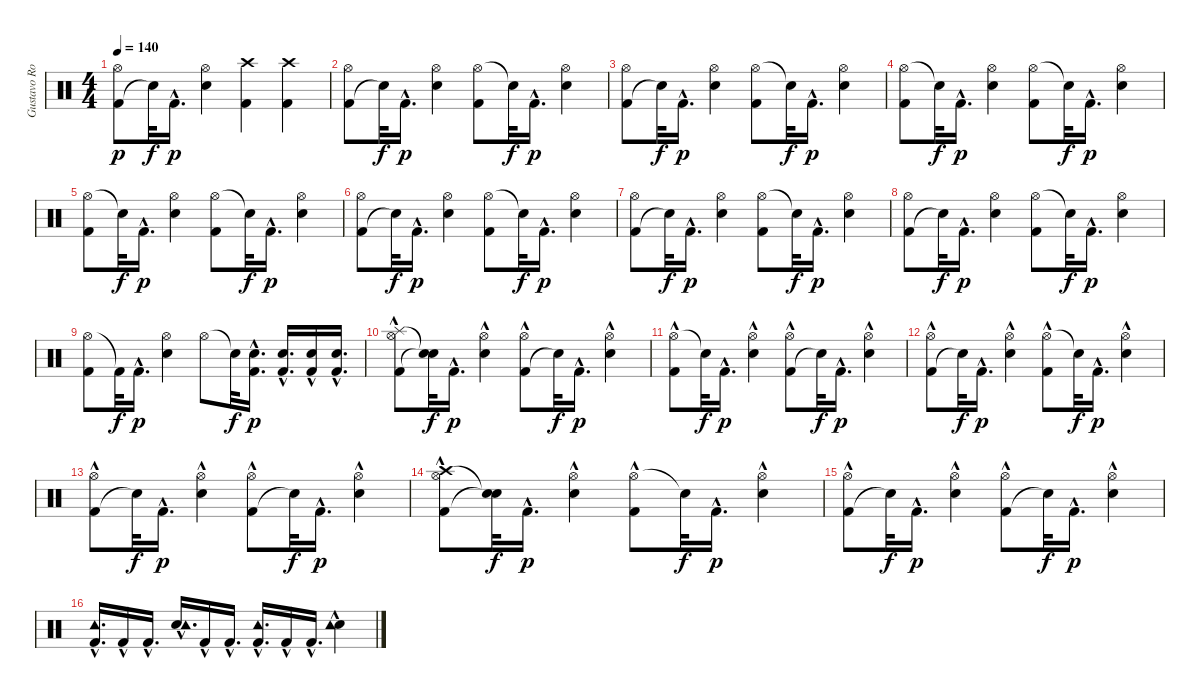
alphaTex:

\track ("Gustavo Rowek" "Gustavo Ro") {instrument percussion}
\staff {score}
\articulation defaults
\ts (4 4)
\tempo 140
\clef neutral
\ks c
("Kick (hit) 2" "Hi-Hat (open)").8{dy p} "Snare (hit)"{t}.32{dy f} "Kick (hit) 2"{hac}.16{d dy p} ("Snare (hit) 2" "Hi-Hat (open)").4 ("Crash high (hit)" "Kick (hit) 2").4 ("Crash high (hit)" "Kick (hit) 2").4 |
("Kick (hit) 2" "Hi-Hat (open)").8 "Snare (hit)"{t}.32{dy f} "Kick (hit) 2"{hac}.16{d dy p} ("Snare (hit) 2" "Hi-Hat (open)").4 ("Hi-Hat (open)" "Kick (hit) 2").8 "Snare (hit)"{t}.32{dy f} "Kick (hit) 2"{hac}.16{d dy p} ("Snare (hit) 2" "Hi-Hat (open)").4 |
("Kick (hit) 2" "Hi-Hat (open)").8 "Snare (hit)"{t}.32{dy f} "Kick (hit) 2"{hac}.16{d dy p} ("Hi-Hat (open)" "Snare (hit) 2").4 ("Hi-Hat (open)" "Kick (hit) 2").8 "Snare (hit)"{t}.32{dy f} "Kick (hit) 2"{hac}.16{d dy p} ("Hi-Hat (open)" "Snare (hit) 2").4 |
("Hi-Hat (open)" "Kick (hit) 2").8 "Snare (hit)"{t}.32{dy f} "Kick (hit) 2"{hac}.16{d dy p} ("Hi-Hat (open)" "Snare (hit) 2").4 ("Hi-Hat (open)" "Kick (hit) 2").8 "Snare (hit)"{t}.32{dy f} "Kick (hit) 2"{hac}.16{d dy p} ("Hi-Hat (open)" "Snare (hit) 2").4 |
("Hi-Hat (open)" "Kick (hit) 2").8 "Snare (hit)"{t}.32{dy f} "Kick (hit) 2"{hac}.16{d dy p} ("Hi-Hat (open)" "Snare (hit) 2").4 ("Hi-Hat (open)" "Kick (hit) 2").8 "Snare (hit)"{t}.32{dy f} "Kick (hit) 2"{hac}.16{d dy p} ("Hi-Hat (open)" "Snare (hit) 2").4 |
("Kick (hit) 2" "Hi-Hat (open)").8 "Snare (hit)"{t}.32{dy f} "Kick (hit) 2"{hac}.16{d dy p} ("Hi-Hat (open)" "Snare (hit) 2").4 ("Hi-Hat (open)" "Kick (hit) 2").8 "Snare (hit)"{t}.32{dy f} "Kick (hit) 2"{hac}.16{d dy p} ("Hi-Hat (open)" "Snare (hit) 2").4 |
("Kick (hit) 2" "Hi-Hat (open)").8 "Snare (hit)"{t}.32{dy f} "Kick (hit) 2"{hac}.16{d dy p} ("Hi-Hat (open)" "Snare (hit) 2").4 ("Hi-Hat (open)" "Kick (hit) 2").8 "Snare (hit)"{t}.32{dy f} "Kick (hit) 2"{hac}.16{d dy p} ("Hi-Hat (open)" "Snare (hit) 2").4 |
("Kick (hit) 2" "Hi-Hat (open)").8 "Snare (hit)"{t}.32{dy f} "Kick (hit) 2"{hac}.16{d dy p} ("Hi-Hat (open)" "Snare (hit) 2").4 ("Hi-Hat (open)" "Kick (hit) 2").8 "Snare (hit)"{t}.32{dy f} "Kick (hit) 2"{hac}.16{d dy p} ("Hi-Hat (open)" "Snare (hit) 2").4 |
("Hi-Hat (open)" "Kick (hit) 2").8 "Kick (hit) 2"{t}.32{dy f} "Kick (hit) 2"{hac}.16{d dy p} ("Hi-Hat (open)" "Snare (hit) 2").4 "Hi-Hat (open)".8 "Snare (hit)"{t}.32{dy f} ("Kick (hit) 2"{hac} "Snare (hit) 2"{hac}).16{d dy p} ("Kick (hit) 2"{hac} "Snare (hit) 2"{hac}).16{d} ("Kick (hit) 2"{hac} "Snare (hit) 2"{hac}).16 ("Kick (hit) 2"{hac} "Snare (hit) 2"{hac}).16{d} |
("Splash (hit)" "Kick (hit) 2"{hac} "Hi-Hat (open)").8 ("Snare (hit)"{t} "Snare (hit)"{t}).32{dy f} "Kick (hit) 2"{hac}.16{d dy p} ("Snare (hit) 2"{hac} "Hi-Hat (open)").4 ("Kick (hit) 2"{hac} "Hi-Hat (open)").8 "Snare (hit)"{t}.32{dy f} "Kick (hit) 2"{hac}.16{d dy p} ("Snare (hit) 2"{hac} "Hi-Hat (open)").4 |
("Hi-Hat (open)" "Kick (hit) 2"{hac}).8 "Snare (hit)"{t}.32{dy f} "Kick (hit) 2"{hac}.16{d dy p} ("Hi-Hat (open)" "Snare (hit) 2"{hac}).4 ("Kick (hit) 2"{hac} "Hi-Hat (open)").8 "Snare (hit)"{t}.32{dy f} "Kick (hit) 2"{hac}.16{d dy p} ("Hi-Hat (open)" "Snare (hit) 2"{hac}).4 |
("Kick (hit) 2"{hac} "Hi-Hat (open)").8 "Snare (hit)"{t}.32{dy f} "Kick (hit) 2"{hac}.16{d dy p} ("Snare (hit) 2"{hac} "Hi-Hat (open)").4 ("Hi-Hat (open)" "Kick (hit) 2"{hac}).8 "Snare (hit)"{t}.32{dy f} "Kick (hit) 2"{hac}.16{d dy p} ("Snare (hit) 2"{hac} "Hi-Hat (open)").4 |
("Kick (hit) 2"{hac} "Hi-Hat (open)").8 "Snare (hit)"{t}.32{dy f} "Kick (hit) 2"{hac}.16{d dy p} ("Snare (hit) 2"{hac} "Hi-Hat (open)").4 ("Kick (hit) 2"{hac} "Hi-Hat (open)").8 "Snare (hit)"{t}.32{dy f} "Kick (hit) 2"{hac}.16{d dy p} ("Snare (hit) 2"{hac} "Hi-Hat (open)").4 |
("Kick (hit) 2"{hac} "Crash high (hit)" "Hi-Hat (open)").8 ("Snare (hit)"{t} "Snare (hit)"{t}).32{dy f} "Kick (hit) 2"{hac}.16{d dy p} ("Hi-Hat (open)" "Snare (hit) 2"{hac}).4 ("Hi-Hat (open)" "Kick (hit) 2"{hac}).8 "Snare (hit)"{t}.32{dy f} "Kick (hit) 2"{hac}.16{d dy p} ("Hi-Hat (open)" "Snare (hit) 2"{hac}).4 |
("Kick (hit) 2"{hac} "Hi-Hat (open)").8 "Snare (hit)"{t}.32{dy f} "Kick (hit) 2"{hac}.16{d dy p} ("Hi-Hat (open)" "Snare (hit) 2"{hac}).4 ("Kick (hit) 2"{hac} "Hi-Hat (open)").8 "Snare (hit)"{t}.32{dy f} "Kick (hit) 2"{hac}.16{d dy p} ("Snare (hit) 2"{hac} "Hi-Hat (open)").4 |
("Tambourine (hit)" "Kick (hit) 2"{hac}).16{d} "Kick (hit) 2"{hac}.16 "Kick (hit) 2"{hac}.16{d} ("Snare (hit) 2"{hac} "Tambourine (hit)").16{d} "Kick (hit) 2"{hac}.16 "Kick (hit) 2"{hac}.16{d} ("Tambourine (hit)" "Kick (hit) 2"{hac}).16{d} "Kick (hit) 2"{hac}.16 "Kick (hit) 2"{hac}.16{d} ("Snare (hit) 2"{hac} "Tambourine (hit)").4
